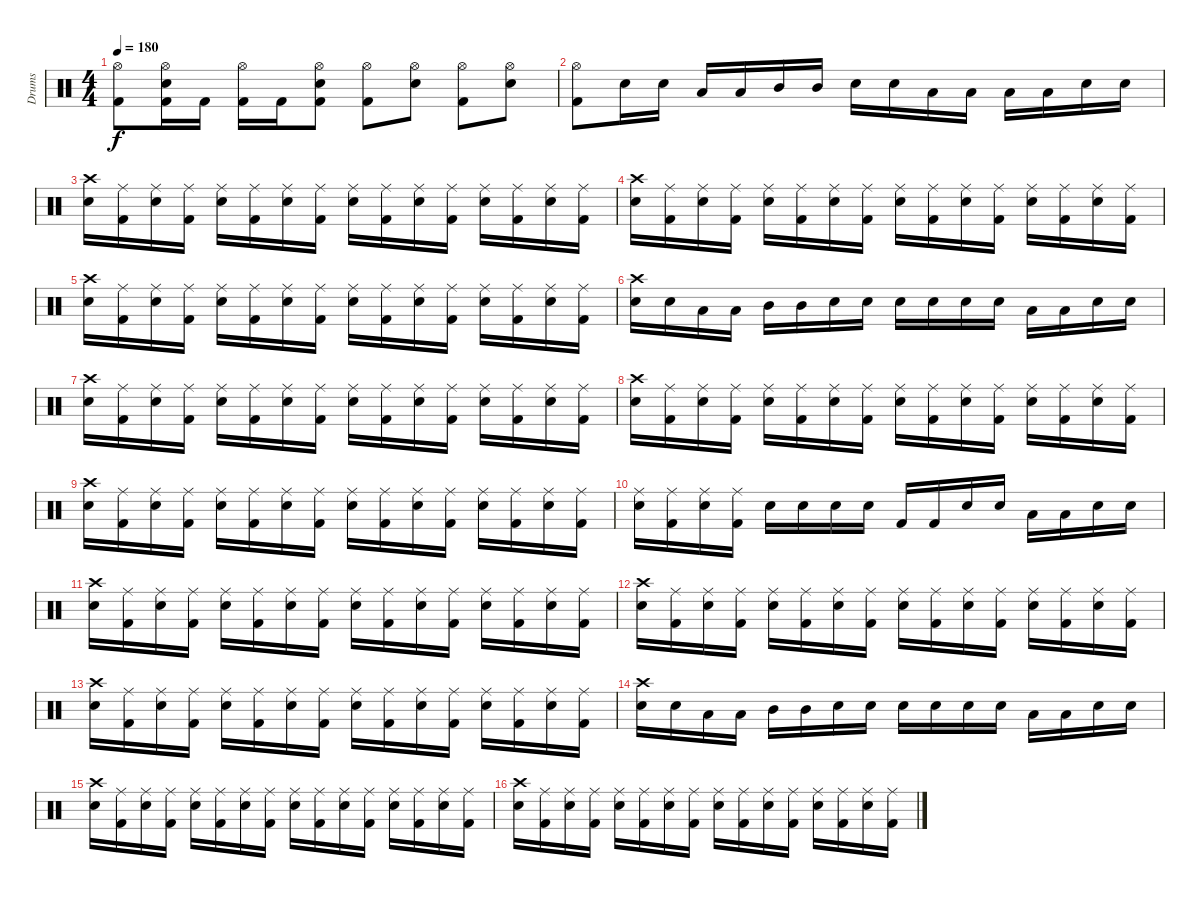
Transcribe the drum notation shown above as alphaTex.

\track ("Drums" "Drums") {instrument percussion}
\staff {score}
\articulation defaults
\ts (4 4)
\tempo 180
\clef neutral
\ks c
("Kick (hit) 2" "Hi-Hat (open)").8{dy f} ("Kick (hit) 2" "Snare (hit) 2" "Hi-Hat (open)").16 "Kick (hit) 2".16 ("Kick (hit) 2" "Hi-Hat (open)").16 "Kick (hit) 2".16 ("Kick (hit) 2" "Snare (hit) 2" "Hi-Hat (open)").8 ("Hi-Hat (open)" "Kick (hit) 2").8 ("Snare (hit) 2" "Hi-Hat (open)").8 ("Hi-Hat (open)" "Kick (hit) 2").8 ("Snare (hit) 2" "Hi-Hat (open)").8 |
("Hi-Hat (open)" "Kick (hit) 2").8 "Snare (hit) 2".16 "Snare (hit) 2".16 "Low Tom (hit)".16 "Low Tom (hit)".16 "Mid Tom (hit)".16 "Mid Tom (hit)".16 "Snare (hit) 2".16 "Snare (hit) 2".16 "Low Tom (hit)".16 "Low Tom (hit)".16 "Low Tom (hit)".16 "Low Tom (hit)".16 "Snare (hit) 2".16 "Snare (hit) 2".16 |
("Crash high (hit)" "Snare (hit) 2").16 ("Ride (middle)" "Kick (hit) 2").16 ("Ride (middle)" "Snare (hit) 2").16 ("Ride (middle)" "Kick (hit) 2").16 ("Ride (middle)" "Snare (hit) 2").16 ("Ride (middle)" "Kick (hit) 2").16 ("Ride (middle)" "Snare (hit) 2").16 ("Ride (middle)" "Kick (hit) 2").16 ("Ride (middle)" "Snare (hit) 2").16 ("Ride (middle)" "Kick (hit) 2").16 ("Ride (middle)" "Snare (hit) 2").16 ("Ride (middle)" "Kick (hit) 2").16 ("Ride (middle)" "Snare (hit) 2").16 ("Ride (middle)" "Kick (hit) 2").16 ("Ride (middle)" "Snare (hit) 2").16 ("Ride (middle)" "Kick (hit) 2").16 |
("Crash high (hit)" "Snare (hit) 2").16 ("Ride (middle)" "Kick (hit) 2").16 ("Ride (middle)" "Snare (hit) 2").16 ("Ride (middle)" "Kick (hit) 2").16 ("Ride (middle)" "Snare (hit) 2").16 ("Ride (middle)" "Kick (hit) 2").16 ("Ride (middle)" "Snare (hit) 2").16 ("Ride (middle)" "Kick (hit) 2").16 ("Ride (middle)" "Snare (hit) 2").16 ("Ride (middle)" "Kick (hit) 2").16 ("Ride (middle)" "Snare (hit) 2").16 ("Ride (middle)" "Kick (hit) 2").16 ("Ride (middle)" "Snare (hit) 2").16 ("Ride (middle)" "Kick (hit) 2").16 ("Ride (middle)" "Snare (hit) 2").16 ("Ride (middle)" "Kick (hit) 2").16 |
("Crash high (hit)" "Snare (hit) 2").16 ("Ride (middle)" "Kick (hit) 2").16 ("Ride (middle)" "Snare (hit) 2").16 ("Ride (middle)" "Kick (hit) 2").16 ("Ride (middle)" "Snare (hit) 2").16 ("Ride (middle)" "Kick (hit) 2").16 ("Ride (middle)" "Snare (hit) 2").16 ("Ride (middle)" "Kick (hit) 2").16 ("Ride (middle)" "Snare (hit) 2").16 ("Ride (middle)" "Kick (hit) 2").16 ("Ride (middle)" "Snare (hit) 2").16 ("Ride (middle)" "Kick (hit) 2").16 ("Ride (middle)" "Snare (hit) 2").16 ("Ride (middle)" "Kick (hit) 2").16 ("Ride (middle)" "Snare (hit) 2").16 ("Ride (middle)" "Kick (hit) 2").16 |
("Snare (hit) 2" "Crash high (hit)").16 "Snare (hit) 2".16 "Low Tom (hit)".16 "Low Tom (hit)".16 "Mid Tom (hit)".16 "Mid Tom (hit)".16 "Snare (hit) 2".16 "Snare (hit) 2".16 "Snare (hit) 2".16 "Snare (hit) 2".16 "Snare (hit) 2".16 "Snare (hit) 2".16 "Low Tom (hit)".16 "Low Tom (hit)".16 "Snare (hit) 2".16 "Snare (hit) 2".16 |
("Crash high (hit)" "Snare (hit) 2").16 ("Ride (middle)" "Kick (hit) 2").16 ("Ride (middle)" "Snare (hit) 2").16 ("Ride (middle)" "Kick (hit) 2").16 ("Ride (middle)" "Snare (hit) 2").16 ("Ride (middle)" "Kick (hit) 2").16 ("Ride (middle)" "Snare (hit) 2").16 ("Ride (middle)" "Kick (hit) 2").16 ("Ride (middle)" "Snare (hit) 2").16 ("Ride (middle)" "Kick (hit) 2").16 ("Ride (middle)" "Snare (hit) 2").16 ("Ride (middle)" "Kick (hit) 2").16 ("Ride (middle)" "Snare (hit) 2").16 ("Ride (middle)" "Kick (hit) 2").16 ("Ride (middle)" "Snare (hit) 2").16 ("Ride (middle)" "Kick (hit) 2").16 |
("Crash high (hit)" "Snare (hit) 2").16 ("Ride (middle)" "Kick (hit) 2").16 ("Ride (middle)" "Snare (hit) 2").16 ("Ride (middle)" "Kick (hit) 2").16 ("Ride (middle)" "Snare (hit) 2").16 ("Ride (middle)" "Kick (hit) 2").16 ("Ride (middle)" "Snare (hit) 2").16 ("Ride (middle)" "Kick (hit) 2").16 ("Ride (middle)" "Snare (hit) 2").16 ("Ride (middle)" "Kick (hit) 2").16 ("Ride (middle)" "Snare (hit) 2").16 ("Ride (middle)" "Kick (hit) 2").16 ("Ride (middle)" "Snare (hit) 2").16 ("Ride (middle)" "Kick (hit) 2").16 ("Ride (middle)" "Snare (hit) 2").16 ("Ride (middle)" "Kick (hit) 2").16 |
("Crash high (hit)" "Snare (hit) 2").16 ("Ride (middle)" "Kick (hit) 2").16 ("Ride (middle)" "Snare (hit) 2").16 ("Ride (middle)" "Kick (hit) 2").16 ("Ride (middle)" "Snare (hit) 2").16 ("Ride (middle)" "Kick (hit) 2").16 ("Ride (middle)" "Snare (hit) 2").16 ("Ride (middle)" "Kick (hit) 2").16 ("Ride (middle)" "Snare (hit) 2").16 ("Ride (middle)" "Kick (hit) 2").16 ("Ride (middle)" "Snare (hit) 2").16 ("Ride (middle)" "Kick (hit) 2").16 ("Ride (middle)" "Snare (hit) 2").16 ("Ride (middle)" "Kick (hit) 2").16 ("Ride (middle)" "Snare (hit) 2").16 ("Ride (middle)" "Kick (hit) 2").16 |
("Snare (hit) 2" "Ride (middle)").16 ("Kick (hit) 2" "Ride (middle)").16 ("Snare (hit) 2" "Ride (middle)").16 ("Kick (hit) 2" "Ride (middle)").16 "Snare (hit) 2".16 "Snare (hit) 2".16 "Snare (hit) 2".16 "Snare (hit) 2".16 "Kick (hit) 2".16 "Kick (hit) 2".16 "Snare (hit) 2".16 "Snare (hit) 2".16 "Low Tom (hit)".16 "Low Tom (hit)".16 "Snare (hit) 2".16 "Snare (hit) 2".16 |
("Crash high (hit)" "Snare (hit) 2").16 ("Ride (middle)" "Kick (hit) 2").16 ("Ride (middle)" "Snare (hit) 2").16 ("Ride (middle)" "Kick (hit) 2").16 ("Ride (middle)" "Snare (hit) 2").16 ("Ride (middle)" "Kick (hit) 2").16 ("Ride (middle)" "Snare (hit) 2").16 ("Ride (middle)" "Kick (hit) 2").16 ("Ride (middle)" "Snare (hit) 2").16 ("Ride (middle)" "Kick (hit) 2").16 ("Ride (middle)" "Snare (hit) 2").16 ("Ride (middle)" "Kick (hit) 2").16 ("Ride (middle)" "Snare (hit) 2").16 ("Ride (middle)" "Kick (hit) 2").16 ("Ride (middle)" "Snare (hit) 2").16 ("Ride (middle)" "Kick (hit) 2").16 |
("Crash high (hit)" "Snare (hit) 2").16 ("Ride (middle)" "Kick (hit) 2").16 ("Ride (middle)" "Snare (hit) 2").16 ("Ride (middle)" "Kick (hit) 2").16 ("Ride (middle)" "Snare (hit) 2").16 ("Ride (middle)" "Kick (hit) 2").16 ("Ride (middle)" "Snare (hit) 2").16 ("Ride (middle)" "Kick (hit) 2").16 ("Ride (middle)" "Snare (hit) 2").16 ("Ride (middle)" "Kick (hit) 2").16 ("Ride (middle)" "Snare (hit) 2").16 ("Ride (middle)" "Kick (hit) 2").16 ("Ride (middle)" "Snare (hit) 2").16 ("Ride (middle)" "Kick (hit) 2").16 ("Ride (middle)" "Snare (hit) 2").16 ("Ride (middle)" "Kick (hit) 2").16 |
("Crash high (hit)" "Snare (hit) 2").16 ("Ride (middle)" "Kick (hit) 2").16 ("Ride (middle)" "Snare (hit) 2").16 ("Ride (middle)" "Kick (hit) 2").16 ("Ride (middle)" "Snare (hit) 2").16 ("Ride (middle)" "Kick (hit) 2").16 ("Ride (middle)" "Snare (hit) 2").16 ("Ride (middle)" "Kick (hit) 2").16 ("Ride (middle)" "Snare (hit) 2").16 ("Ride (middle)" "Kick (hit) 2").16 ("Ride (middle)" "Snare (hit) 2").16 ("Ride (middle)" "Kick (hit) 2").16 ("Ride (middle)" "Snare (hit) 2").16 ("Ride (middle)" "Kick (hit) 2").16 ("Ride (middle)" "Snare (hit) 2").16 ("Ride (middle)" "Kick (hit) 2").16 |
("Snare (hit) 2" "Crash high (hit)").16 "Snare (hit) 2".16 "Low Tom (hit)".16 "Low Tom (hit)".16 "Mid Tom (hit)".16 "Mid Tom (hit)".16 "Snare (hit) 2".16 "Snare (hit) 2".16 "Snare (hit) 2".16 "Snare (hit) 2".16 "Snare (hit) 2".16 "Snare (hit) 2".16 "Low Tom (hit)".16 "Low Tom (hit)".16 "Snare (hit) 2".16 "Snare (hit) 2".16 |
("Crash high (hit)" "Snare (hit) 2").16 ("Ride (middle)" "Kick (hit) 2").16 ("Ride (middle)" "Snare (hit) 2").16 ("Ride (middle)" "Kick (hit) 2").16 ("Ride (middle)" "Snare (hit) 2").16 ("Ride (middle)" "Kick (hit) 2").16 ("Ride (middle)" "Snare (hit) 2").16 ("Ride (middle)" "Kick (hit) 2").16 ("Ride (middle)" "Snare (hit) 2").16 ("Ride (middle)" "Kick (hit) 2").16 ("Ride (middle)" "Snare (hit) 2").16 ("Ride (middle)" "Kick (hit) 2").16 ("Ride (middle)" "Snare (hit) 2").16 ("Ride (middle)" "Kick (hit) 2").16 ("Ride (middle)" "Snare (hit) 2").16 ("Ride (middle)" "Kick (hit) 2").16 |
("Crash high (hit)" "Snare (hit) 2").16 ("Ride (middle)" "Kick (hit) 2").16 ("Ride (middle)" "Snare (hit) 2").16 ("Ride (middle)" "Kick (hit) 2").16 ("Ride (middle)" "Snare (hit) 2").16 ("Ride (middle)" "Kick (hit) 2").16 ("Ride (middle)" "Snare (hit) 2").16 ("Ride (middle)" "Kick (hit) 2").16 ("Ride (middle)" "Snare (hit) 2").16 ("Ride (middle)" "Kick (hit) 2").16 ("Ride (middle)" "Snare (hit) 2").16 ("Ride (middle)" "Kick (hit) 2").16 ("Ride (middle)" "Snare (hit) 2").16 ("Ride (middle)" "Kick (hit) 2").16 ("Ride (middle)" "Snare (hit) 2").16 ("Ride (middle)" "Kick (hit) 2").16
